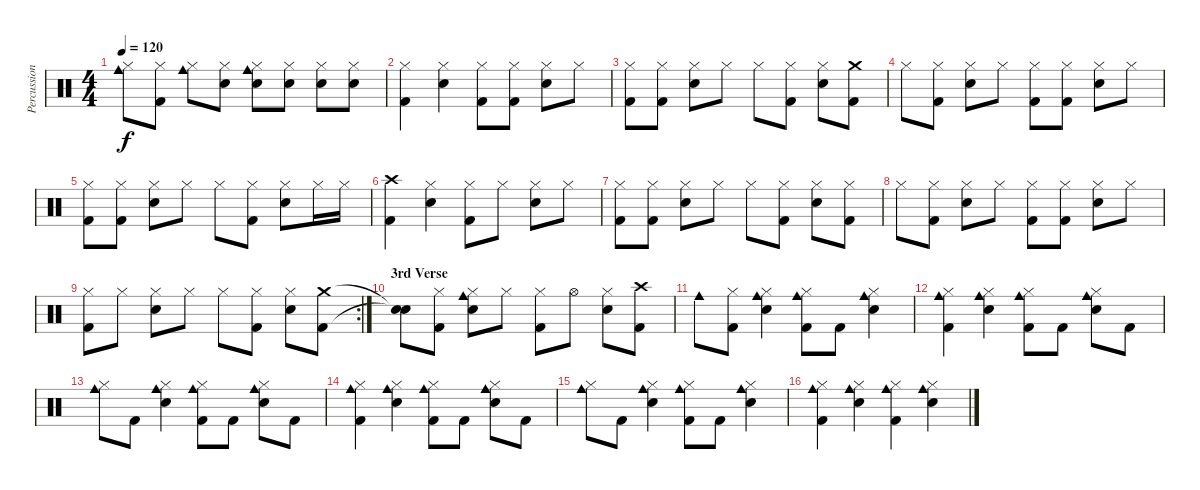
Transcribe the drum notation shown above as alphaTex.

\track ("Percussions" "Percussion") {instrument percussion}
\staff {score}
\articulation defaults
\ts (4 4)
\tempo 120
\clef neutral
\ks c
("Cowbell medium (hit)" "Hi-Hat (closed)").8{dy f} ("Hi-Hat (closed)" "Kick (hit) 2").8 ("Cowbell medium (hit)" "Hi-Hat (closed)").8 ("Hi-Hat (closed)" "Snare (hit) 2").8 ("Cowbell medium (hit)" "Hi-Hat (closed)" "Snare (hit) 2").8 ("Hi-Hat (closed)" "Snare (hit) 2").8 ("Hi-Hat (closed)" "Snare (hit) 2").8 ("Hi-Hat (closed)" "Snare (hit) 2").8 |
("Hi-Hat (closed)" "Kick (hit) 2").4 ("Hi-Hat (closed)" "Snare (hit) 2").4 ("Hi-Hat (closed)" "Kick (hit) 2").8 ("Hi-Hat (closed)" "Kick (hit) 2").8 ("Hi-Hat (closed)" "Snare (hit) 2").8 "Hi-Hat (closed)".8 |
("Hi-Hat (closed)" "Kick (hit) 2").8 ("Hi-Hat (closed)" "Kick (hit) 2").8 ("Hi-Hat (closed)" "Snare (hit) 2").8 "Hi-Hat (closed)".8 "Hi-Hat (closed)".8 ("Hi-Hat (closed)" "Kick (hit) 2").8 ("Hi-Hat (closed)" "Snare (hit) 2").8 ("Crash medium (hit)" "Kick (hit) 2").8 |
"Hi-Hat (closed)".8 ("Hi-Hat (closed)" "Kick (hit) 2").8 ("Hi-Hat (closed)" "Snare (hit) 2").8 "Hi-Hat (closed)".8 ("Hi-Hat (closed)" "Kick (hit) 2").8 ("Hi-Hat (closed)" "Kick (hit) 2").8 ("Hi-Hat (closed)" "Snare (hit) 2").8 "Hi-Hat (closed)".8 |
("Hi-Hat (closed)" "Kick (hit) 2").8 ("Hi-Hat (closed)" "Kick (hit) 2").8 ("Hi-Hat (closed)" "Snare (hit) 2").8 "Hi-Hat (closed)".8 "Hi-Hat (closed)".8 ("Hi-Hat (closed)" "Kick (hit) 2").8 ("Hi-Hat (closed)" "Snare (hit) 2").8 "Hi-Hat (closed)".16 "Hi-Hat (closed)".16 |
("Crash high (hit)" "Kick (hit) 2").4 ("Hi-Hat (closed)" "Snare (hit) 2").4 ("Hi-Hat (closed)" "Kick (hit) 2").8 "Hi-Hat (closed)".8 ("Hi-Hat (closed)" "Snare (hit) 2").8 "Hi-Hat (closed)".8 |
("Hi-Hat (closed)" "Kick (hit) 2").8 ("Hi-Hat (closed)" "Kick (hit) 2").8 ("Hi-Hat (closed)" "Snare (hit) 2").8 "Hi-Hat (closed)".8 "Hi-Hat (closed)".8 ("Hi-Hat (closed)" "Kick (hit) 2").8 ("Hi-Hat (closed)" "Snare (hit) 2").8 ("Hi-Hat (closed)" "Kick (hit) 2").8 |
"Hi-Hat (closed)".8 ("Hi-Hat (closed)" "Kick (hit) 2").8 ("Hi-Hat (closed)" "Snare (hit) 2").8 "Hi-Hat (closed)".8 ("Hi-Hat (closed)" "Kick (hit) 2").8 ("Hi-Hat (closed)" "Kick (hit) 2").8 ("Hi-Hat (closed)" "Snare (hit) 2").8 "Hi-Hat (closed)".8 |
\rc 2
("Hi-Hat (closed)" "Kick (hit) 2").8 "Hi-Hat (closed)".8 ("Hi-Hat (closed)" "Snare (hit) 2").8 "Hi-Hat (closed)".8 "Hi-Hat (closed)".8 ("Hi-Hat (closed)" "Kick (hit) 2").8 ("Hi-Hat (closed)" "Snare (hit) 2").8 ("Crash medium (hit)" "Kick (hit) 2").8 |
\section ("" "3rd Verse")
("Snare (hit)"{t} "Snare (hit)"{t}).8 ("Hi-Hat (closed)" "Kick (hit) 2").8 ("Cowbell medium (hit)" "Hi-Hat (closed)" "Snare (hit) 2").8 "Hi-Hat (closed)".8 ("Hi-Hat (closed)" "Kick (hit) 2").8 "Hi-Hat (open)".8 ("Hi-Hat (closed)" "Snare (hit) 2").8 ("Crash high (hit)" "Kick (hit) 2").8 |
"Cowbell medium (hit)".8 ("Hi-Hat (closed)" "Kick (hit) 2").8 ("Cowbell medium (hit)" "Hi-Hat (closed)" "Snare (hit) 2").4 ("Cowbell medium (hit)" "Hi-Hat (closed)" "Kick (hit) 2").8 "Kick (hit) 2".8 ("Cowbell medium (hit)" "Hi-Hat (closed)" "Snare (hit) 2").4 |
("Cowbell medium (hit)" "Hi-Hat (closed)" "Kick (hit) 2").4 ("Cowbell medium (hit)" "Hi-Hat (closed)" "Snare (hit) 2").4 ("Cowbell medium (hit)" "Hi-Hat (closed)" "Kick (hit) 2").8 "Kick (hit) 2".8 ("Cowbell medium (hit)" "Hi-Hat (closed)" "Snare (hit) 2").8 "Kick (hit) 2".8 |
("Cowbell medium (hit)" "Hi-Hat (closed)").8 "Kick (hit) 2".8 ("Cowbell medium (hit)" "Hi-Hat (closed)" "Snare (hit) 2").4 ("Cowbell medium (hit)" "Hi-Hat (closed)" "Kick (hit) 2").8 "Kick (hit) 2".8 ("Cowbell medium (hit)" "Hi-Hat (closed)" "Snare (hit) 2").8 "Kick (hit) 2".8 |
("Cowbell medium (hit)" "Hi-Hat (closed)" "Kick (hit) 2").4 ("Cowbell medium (hit)" "Hi-Hat (closed)" "Snare (hit) 2").4 ("Cowbell medium (hit)" "Hi-Hat (closed)" "Kick (hit) 2").8 "Kick (hit) 2".8 ("Cowbell medium (hit)" "Hi-Hat (closed)" "Snare (hit) 2").8 "Kick (hit) 2".8 |
("Cowbell medium (hit)" "Hi-Hat (closed)").8 "Kick (hit) 2".8 ("Cowbell medium (hit)" "Hi-Hat (closed)" "Snare (hit) 2").4 ("Cowbell medium (hit)" "Hi-Hat (closed)" "Kick (hit) 2").8 "Kick (hit) 2".8 ("Cowbell medium (hit)" "Hi-Hat (closed)" "Snare (hit) 2").4 |
("Cowbell medium (hit)" "Hi-Hat (closed)" "Kick (hit) 2").4 ("Cowbell medium (hit)" "Hi-Hat (closed)" "Snare (hit) 2").4 ("Cowbell medium (hit)" "Hi-Hat (closed)" "Kick (hit) 2").4 ("Cowbell medium (hit)" "Hi-Hat (closed)" "Snare (hit) 2").4
